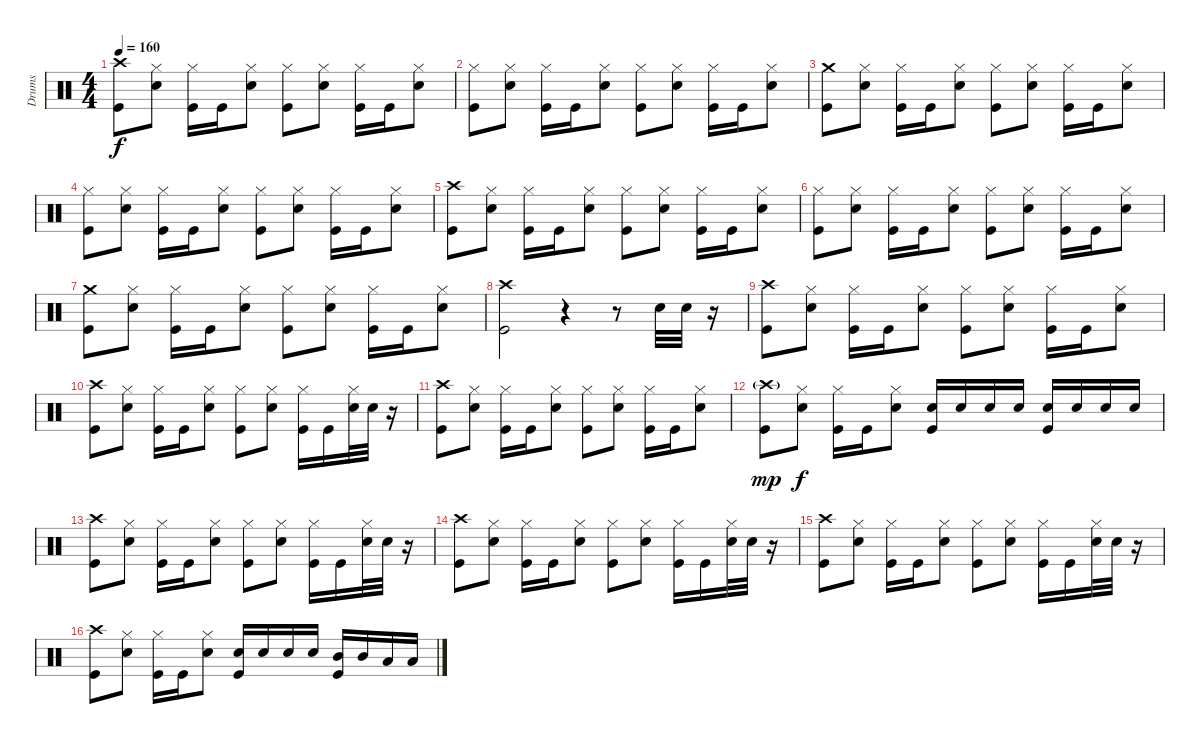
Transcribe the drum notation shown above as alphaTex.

\track ("Drums" "Drums") {instrument percussion}
\staff {score}
\articulation defaults
\ts (4 4)
\tempo 160
\clef neutral
\ks c
("Crash high (hit)" "Kick (hit)").8{dy f} ("Hi-Hat (closed)" "Electric Snare (hit)").8 ("Hi-Hat (closed)" "Kick (hit)").16 "Kick (hit)".16 ("Hi-Hat (closed)" "Electric Snare (hit)").8 ("Hi-Hat (closed)" "Kick (hit)").8 ("Hi-Hat (closed)" "Electric Snare (hit)").8 ("Hi-Hat (closed)" "Kick (hit)").16 "Kick (hit)".16 ("Hi-Hat (closed)" "Electric Snare (hit)").8 |
("Hi-Hat (closed)" "Kick (hit)").8 ("Hi-Hat (closed)" "Electric Snare (hit)").8 ("Hi-Hat (closed)" "Kick (hit)").16 "Kick (hit)".16 ("Hi-Hat (closed)" "Electric Snare (hit)").8 ("Hi-Hat (closed)" "Kick (hit)").8 ("Hi-Hat (closed)" "Electric Snare (hit)").8 ("Hi-Hat (closed)" "Kick (hit)").16 "Kick (hit)".16 ("Hi-Hat (closed)" "Electric Snare (hit)").8 |
("Crash medium (hit)" "Kick (hit)").8 ("Hi-Hat (closed)" "Electric Snare (hit)").8 ("Hi-Hat (closed)" "Kick (hit)").16 "Kick (hit)".16 ("Hi-Hat (closed)" "Electric Snare (hit)").8 ("Hi-Hat (closed)" "Kick (hit)").8 ("Hi-Hat (closed)" "Electric Snare (hit)").8 ("Hi-Hat (closed)" "Kick (hit)").16 "Kick (hit)".16 ("Hi-Hat (closed)" "Electric Snare (hit)").8 |
("Hi-Hat (closed)" "Kick (hit)").8 ("Hi-Hat (closed)" "Electric Snare (hit)").8 ("Hi-Hat (closed)" "Kick (hit)").16 "Kick (hit)".16 ("Hi-Hat (closed)" "Electric Snare (hit)").8 ("Hi-Hat (closed)" "Kick (hit)").8 ("Hi-Hat (closed)" "Electric Snare (hit)").8 ("Hi-Hat (closed)" "Kick (hit)").16 "Kick (hit)".16 ("Hi-Hat (closed)" "Electric Snare (hit)").8 |
("Crash high (hit)" "Kick (hit)").8 ("Hi-Hat (closed)" "Electric Snare (hit)").8 ("Hi-Hat (closed)" "Kick (hit)").16 "Kick (hit)".16 ("Hi-Hat (closed)" "Electric Snare (hit)").8 ("Hi-Hat (closed)" "Kick (hit)").8 ("Hi-Hat (closed)" "Electric Snare (hit)").8 ("Hi-Hat (closed)" "Kick (hit)").16 "Kick (hit)".16 ("Hi-Hat (closed)" "Electric Snare (hit)").8 |
("Hi-Hat (closed)" "Kick (hit)").8 ("Hi-Hat (closed)" "Electric Snare (hit)").8 ("Hi-Hat (closed)" "Kick (hit)").16 "Kick (hit)".16 ("Hi-Hat (closed)" "Electric Snare (hit)").8 ("Hi-Hat (closed)" "Kick (hit)").8 ("Hi-Hat (closed)" "Electric Snare (hit)").8 ("Hi-Hat (closed)" "Kick (hit)").16 "Kick (hit)".16 ("Hi-Hat (closed)" "Electric Snare (hit)").8 |
("Crash medium (hit)" "Kick (hit)").8 ("Hi-Hat (closed)" "Electric Snare (hit)").8 ("Hi-Hat (closed)" "Kick (hit)").16 "Kick (hit)".16 ("Hi-Hat (closed)" "Electric Snare (hit)").8 ("Hi-Hat (closed)" "Kick (hit)").8 ("Hi-Hat (closed)" "Electric Snare (hit)").8 ("Hi-Hat (closed)" "Kick (hit)").16 "Kick (hit)".16 ("Hi-Hat (closed)" "Electric Snare (hit)").8 |
("Crash high (hit)" "Kick (hit)").2 r.4 r.8 "Electric Snare (hit)".32 "Electric Snare (hit)".32 r.16 |
("Crash high (hit)" "Kick (hit)").8 ("Hi-Hat (closed)" "Electric Snare (hit)").8 ("Hi-Hat (closed)" "Kick (hit)").16 "Kick (hit)".16 ("Hi-Hat (closed)" "Electric Snare (hit)").8 ("Hi-Hat (closed)" "Kick (hit)").8 ("Hi-Hat (closed)" "Electric Snare (hit)").8 ("Hi-Hat (closed)" "Kick (hit)").16 "Kick (hit)".16 ("Hi-Hat (closed)" "Electric Snare (hit)").8 |
("Crash high (hit)" "Kick (hit)").8 ("Hi-Hat (closed)" "Electric Snare (hit)").8 ("Hi-Hat (closed)" "Kick (hit)").16 "Kick (hit)".16 ("Hi-Hat (closed)" "Electric Snare (hit)").8 ("Hi-Hat (closed)" "Kick (hit)").8 ("Hi-Hat (closed)" "Electric Snare (hit)").8 ("Hi-Hat (closed)" "Kick (hit)").16 "Kick (hit)".16 ("Hi-Hat (closed)" "Electric Snare (hit)").32 "Electric Snare (hit)".32 r.16 |
("Crash high (hit)" "Kick (hit)").8 ("Hi-Hat (closed)" "Electric Snare (hit)").8 ("Hi-Hat (closed)" "Kick (hit)").16 "Kick (hit)".16 ("Hi-Hat (closed)" "Electric Snare (hit)").8 ("Hi-Hat (closed)" "Kick (hit)").8 ("Hi-Hat (closed)" "Electric Snare (hit)").8 ("Hi-Hat (closed)" "Kick (hit)").16 "Kick (hit)".16 ("Hi-Hat (closed)" "Electric Snare (hit)").8 |
("Crash high (hit)"{g} "Kick (hit)").8{dy mp} ("Hi-Hat (closed)" "Electric Snare (hit)").8{dy f} ("Hi-Hat (closed)" "Kick (hit)").16 "Kick (hit)".16 ("Hi-Hat (closed)" "Electric Snare (hit)").8 ("Electric Snare (hit)" "Kick (hit)").16 "Electric Snare (hit)".16 "Electric Snare (hit)".16 "Electric Snare (hit)".16 ("Electric Snare (hit)" "Kick (hit)").16 "Electric Snare (hit)".16 "Electric Snare (hit)".16 "Electric Snare (hit)".16 |
("Crash high (hit)" "Kick (hit)").8 ("Hi-Hat (closed)" "Electric Snare (hit)").8 ("Hi-Hat (closed)" "Kick (hit)").16 "Kick (hit)".16 ("Hi-Hat (closed)" "Electric Snare (hit)").8 ("Hi-Hat (closed)" "Kick (hit)").8 ("Hi-Hat (closed)" "Electric Snare (hit)").8 ("Hi-Hat (closed)" "Kick (hit)").16 "Kick (hit)".16 ("Hi-Hat (closed)" "Electric Snare (hit)").32 "Electric Snare (hit)".32 r.16 |
("Crash high (hit)" "Kick (hit)").8 ("Hi-Hat (closed)" "Electric Snare (hit)").8 ("Hi-Hat (closed)" "Kick (hit)").16 "Kick (hit)".16 ("Hi-Hat (closed)" "Electric Snare (hit)").8 ("Hi-Hat (closed)" "Kick (hit)").8 ("Hi-Hat (closed)" "Electric Snare (hit)").8 ("Hi-Hat (closed)" "Kick (hit)").16 "Kick (hit)".16 ("Hi-Hat (closed)" "Electric Snare (hit)").32 "Electric Snare (hit)".32 r.16 |
("Crash high (hit)" "Kick (hit)").8 ("Hi-Hat (closed)" "Electric Snare (hit)").8 ("Hi-Hat (closed)" "Kick (hit)").16 "Kick (hit)".16 ("Hi-Hat (closed)" "Electric Snare (hit)").8 ("Hi-Hat (closed)" "Kick (hit)").8 ("Hi-Hat (closed)" "Electric Snare (hit)").8 ("Hi-Hat (closed)" "Kick (hit)").16 "Kick (hit)".16 ("Hi-Hat (closed)" "Electric Snare (hit)").32 "Electric Snare (hit)".32 r.16 |
("Crash high (hit)" "Kick (hit)").8 ("Hi-Hat (closed)" "Electric Snare (hit)").8 ("Hi-Hat (closed)" "Kick (hit)").16 "Kick (hit)".16 ("Hi-Hat (closed)" "Electric Snare (hit)").8 ("Electric Snare (hit)" "Kick (hit)").16 "Electric Snare (hit)".16 "Electric Snare (hit)".16 "Electric Snare (hit)".16 ("Mid Tom (hit)" "Kick (hit)").16 "Mid Tom (hit)".16 "Low Tom (hit)".16 "Low Tom (hit)".16
